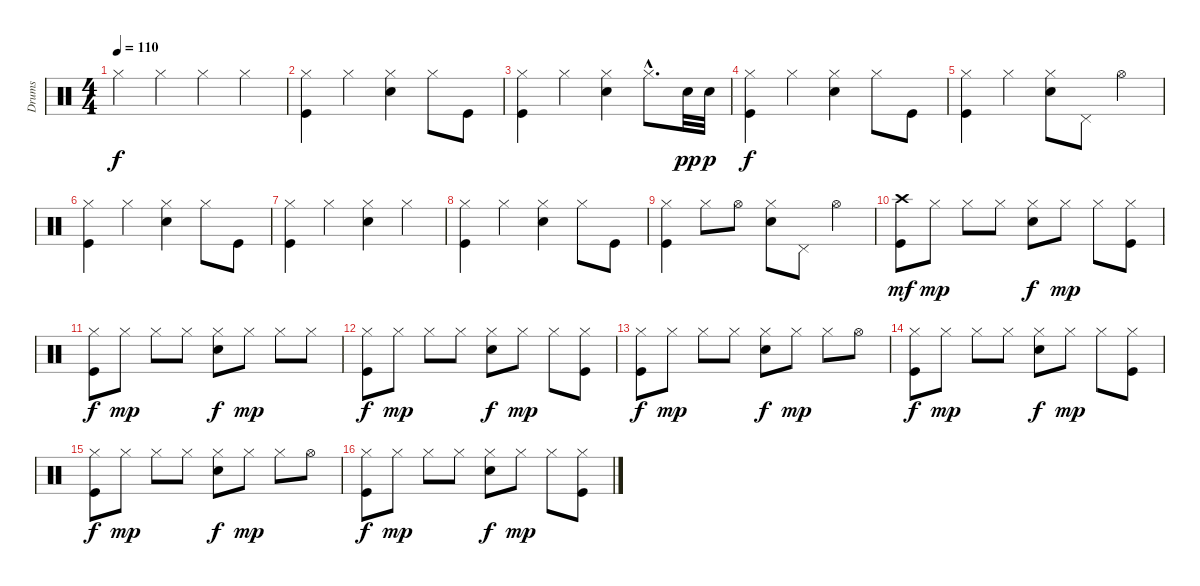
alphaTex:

\track ("Drums" "Drums") {instrument percussion}
\staff {score}
\articulation defaults
\ts (4 4)
\tempo 110
\clef neutral
\ks c "Hi-Hat (closed)".4{dy f} "Hi-Hat (closed)".4 "Hi-Hat (closed)".4 "Hi-Hat (closed)".4
|
("Hi-Hat (closed)" "Kick (hit)").4 "Hi-Hat (closed)".4 ("Hi-Hat (closed)" "Electric Snare (hit)").4 "Hi-Hat (closed)".8 "Kick (hit)".8 |
("Hi-Hat (closed)" "Kick (hit)").4 "Hi-Hat (closed)".4 ("Hi-Hat (closed)" "Electric Snare (hit)").4 "Hi-Hat (closed)"{hac}.8{d} "Electric Snare (hit)".32{dy pp} "Electric Snare (hit)".32{dy p} |
("Hi-Hat (closed)" "Kick (hit)").4{dy f} "Hi-Hat (closed)".4 ("Hi-Hat (closed)" "Electric Snare (hit)").4 "Hi-Hat (closed)".8 "Kick (hit)".8 |
("Hi-Hat (closed)" "Kick (hit)").4 "Hi-Hat (closed)".4 ("Hi-Hat (closed)" "Electric Snare (hit)").8 "Pedal Hi-Hat (hit)".8 "Hi-Hat (open)".4 |
("Hi-Hat (closed)" "Kick (hit)").4 "Hi-Hat (closed)".4 ("Hi-Hat (closed)" "Electric Snare (hit)").4 "Hi-Hat (closed)".8 "Kick (hit)".8 |
("Hi-Hat (closed)" "Kick (hit)").4 "Hi-Hat (closed)".4 ("Hi-Hat (closed)" "Electric Snare (hit)").4 "Hi-Hat (closed)".4 |
("Hi-Hat (closed)" "Kick (hit)").4 "Hi-Hat (closed)".4 ("Hi-Hat (closed)" "Electric Snare (hit)").4 "Hi-Hat (closed)".8 "Kick (hit)".8 |
("Hi-Hat (closed)" "Kick (hit)").4 "Hi-Hat (closed)".8 "Hi-Hat (open)".8 ("Hi-Hat (closed)" "Electric Snare (hit)").8 "Pedal Hi-Hat (hit)".8 "Hi-Hat (open)".4 |
("Crash high (hit)" "Kick (hit)").8{dy mf} "Hi-Hat (closed)".8{dy mp} "Hi-Hat (closed)".8 "Hi-Hat (closed)".8 ("Hi-Hat (closed)" "Electric Snare (hit)").8{dy f} "Hi-Hat (closed)".8{dy mp} "Hi-Hat (closed)".8 ("Hi-Hat (closed)" "Kick (hit)").8 |
("Hi-Hat (closed)" "Kick (hit)").8{dy f} "Hi-Hat (closed)".8{dy mp} "Hi-Hat (closed)".8 "Hi-Hat (closed)".8 ("Hi-Hat (closed)" "Electric Snare (hit)").8{dy f} "Hi-Hat (closed)".8{dy mp} "Hi-Hat (closed)".8 "Hi-Hat (closed)".8 |
("Hi-Hat (closed)" "Kick (hit)").8{dy f} "Hi-Hat (closed)".8{dy mp} "Hi-Hat (closed)".8 "Hi-Hat (closed)".8 ("Hi-Hat (closed)" "Electric Snare (hit)").8{dy f} "Hi-Hat (closed)".8{dy mp} "Hi-Hat (closed)".8 ("Hi-Hat (closed)" "Kick (hit)").8 |
("Hi-Hat (closed)" "Kick (hit)").8{dy f} "Hi-Hat (closed)".8{dy mp} "Hi-Hat (closed)".8 "Hi-Hat (closed)".8 ("Hi-Hat (closed)" "Electric Snare (hit)").8{dy f} "Hi-Hat (closed)".8{dy mp} "Hi-Hat (closed)".8 "Hi-Hat (open)".8 |
("Hi-Hat (closed)" "Kick (hit)").8{dy f} "Hi-Hat (closed)".8{dy mp} "Hi-Hat (closed)".8 "Hi-Hat (closed)".8 ("Hi-Hat (closed)" "Electric Snare (hit)").8{dy f} "Hi-Hat (closed)".8{dy mp} "Hi-Hat (closed)".8 ("Hi-Hat (closed)" "Kick (hit)").8 |
("Hi-Hat (closed)" "Kick (hit)").8{dy f} "Hi-Hat (closed)".8{dy mp} "Hi-Hat (closed)".8 "Hi-Hat (closed)".8 ("Hi-Hat (closed)" "Electric Snare (hit)").8{dy f} "Hi-Hat (closed)".8{dy mp} "Hi-Hat (closed)".8 "Hi-Hat (open)".8 |
("Hi-Hat (closed)" "Kick (hit)").8{dy f} "Hi-Hat (closed)".8{dy mp} "Hi-Hat (closed)".8 "Hi-Hat (closed)".8 ("Hi-Hat (closed)" "Electric Snare (hit)").8{dy f} "Hi-Hat (closed)".8{dy mp} "Hi-Hat (closed)".8 ("Hi-Hat (closed)" "Kick (hit)").8
